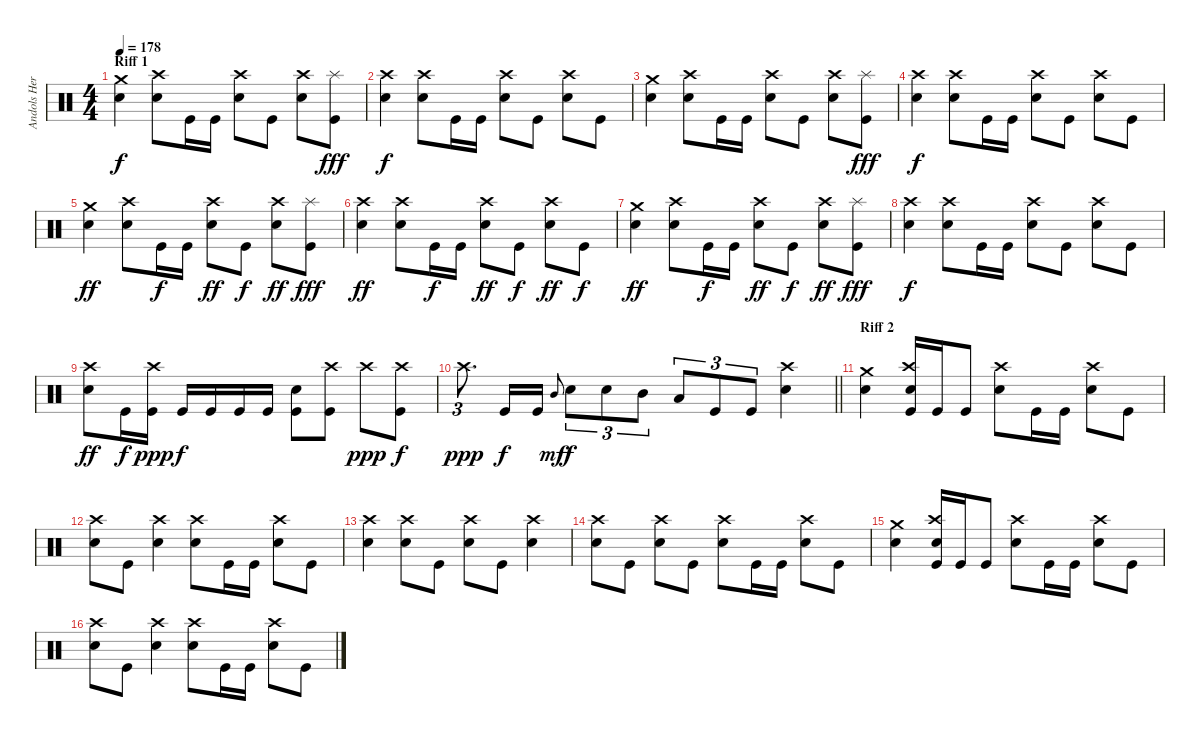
\track ("Andols Herrick" "Andols Her") {instrument percussion}
\staff {score}
\articulation defaults
\ts (4 4)
\section ("" "Riff 1")
\tempo 178
\clef neutral
\ks c
("Crash medium (hit)" "Electric Snare (hit)").4{dy f} ("Crash high (hit)" "Electric Snare (hit)").8 "Kick (hit)".16 "Kick (hit)".16 ("Crash high (hit)" "Electric Snare (hit)").8 "Kick (hit)".8 ("Crash high (hit)" "Electric Snare (hit)").8 ("Splash (hit)" "Kick (hit)").8{dy fff} |
("Crash high (hit)" "Electric Snare (hit)").4{dy f} ("Crash high (hit)" "Electric Snare (hit)").8 "Kick (hit)".16 "Kick (hit)".16 ("Crash high (hit)" "Electric Snare (hit)").8 "Kick (hit)".8 ("Crash high (hit)" "Electric Snare (hit)").8 "Kick (hit)".8 |
("Crash medium (hit)" "Electric Snare (hit)").4 ("Crash high (hit)" "Electric Snare (hit)").8 "Kick (hit)".16 "Kick (hit)".16 ("Crash high (hit)" "Electric Snare (hit)").8 "Kick (hit)".8 ("Crash high (hit)" "Electric Snare (hit)").8 ("Splash (hit)" "Kick (hit)").8{dy fff} |
("Crash high (hit)" "Electric Snare (hit)").4{dy f} ("Crash high (hit)" "Electric Snare (hit)").8 "Kick (hit)".16 "Kick (hit)".16 ("Crash high (hit)" "Electric Snare (hit)").8 "Kick (hit)".8 ("Crash high (hit)" "Electric Snare (hit)").8 "Kick (hit)".8 |
("Crash medium (hit)" "Electric Snare (hit)").4{dy ff} ("Crash high (hit)" "Electric Snare (hit)").8 "Kick (hit)".16{dy f} "Kick (hit)".16 ("Crash high (hit)" "Electric Snare (hit)").8{dy ff} "Kick (hit)".8{dy f} ("Crash high (hit)" "Electric Snare (hit)").8{dy ff} ("Splash (hit)" "Kick (hit)").8{dy fff} |
("Crash high (hit)" "Electric Snare (hit)").4{dy ff} ("Crash high (hit)" "Electric Snare (hit)").8 "Kick (hit)".16{dy f} "Kick (hit)".16 ("Crash high (hit)" "Electric Snare (hit)").8{dy ff} "Kick (hit)".8{dy f} ("Crash high (hit)" "Electric Snare (hit)").8{dy ff} "Kick (hit)".8{dy f} |
("Crash medium (hit)" "Electric Snare (hit)").4{dy ff} ("Crash high (hit)" "Electric Snare (hit)").8 "Kick (hit)".16{dy f} "Kick (hit)".16 ("Crash high (hit)" "Electric Snare (hit)").8{dy ff} "Kick (hit)".8{dy f} ("Crash high (hit)" "Electric Snare (hit)").8{dy ff} ("Splash (hit)" "Kick (hit)").8{dy fff} |
("Crash high (hit)" "Electric Snare (hit)").4{dy f} ("Crash high (hit)" "Electric Snare (hit)").8 "Kick (hit)".16 "Kick (hit)".16 ("Crash high (hit)" "Electric Snare (hit)").8 "Kick (hit)".8 ("Crash high (hit)" "Electric Snare (hit)").8 "Kick (hit)".8 |
("Crash high (hit)" "Electric Snare (hit)").8{dy ff} "Kick (hit)".16{dy f} ("Crash high (hit)" "Kick (hit)").16{dy ppp} "Kick (hit)".16{dy f} "Kick (hit)".16 "Kick (hit)".16 "Kick (hit)".16 ("Electric Snare (hit)" "Kick (hit)").8 ("Crash high (hit)" "Kick (hit)").8 "Crash high (hit)".8{dy ppp} ("Crash high (hit)" "Kick (hit)").8{dy f} |
\barLineRight lightlight "Crash high (hit)".8{d tu (3 2) dy ppp} "Kick (hit)".16{dy f} "Kick (hit)".16 "Mid Tom (hit)".8{gr onbeat dy mf} "Electric Snare (hit)".8{tu (3 2) dy f} "Electric Snare (hit)".8{tu (3 2)} "Mid Tom (hit)".8{tu (3 2)} "Low Tom (hit)".8{tu (3 2)} "Kick (hit)".8{tu (3 2)} "Kick (hit)".8{tu (3 2)}
("Crash high (hit)" "Electric Snare (hit)").4 |
\section ("" "Riff 2")
("Crash medium (hit)" "Electric Snare (hit)").4 ("Crash high (hit)" "Electric Snare (hit)" "Kick (hit)").16 "Kick (hit)".16 "Kick (hit)".8 ("Crash high (hit)" "Electric Snare (hit)").8 "Kick (hit)".16 "Kick (hit)".16 ("Crash high (hit)" "Electric Snare (hit)").8 "Kick (hit)".8 |
("Crash high (hit)" "Electric Snare (hit)").8 "Kick (hit)".8 ("Crash high (hit)" "Electric Snare (hit)").4 ("Crash high (hit)" "Electric Snare (hit)").8 "Kick (hit)".16 "Kick (hit)".16 ("Crash high (hit)" "Electric Snare (hit)").8 "Kick (hit)".8 |
("Crash high (hit)" "Electric Snare (hit)").4 ("Crash high (hit)" "Electric Snare (hit)").8 "Kick (hit)".8 ("Crash high (hit)" "Electric Snare (hit)").8 "Kick (hit)".8 ("Crash high (hit)" "Electric Snare (hit)").4 |
("Crash high (hit)" "Electric Snare (hit)").8 "Kick (hit)".8 ("Crash high (hit)" "Electric Snare (hit)").8 "Kick (hit)".8 ("Crash high (hit)" "Electric Snare (hit)").8 "Kick (hit)".16 "Kick (hit)".16 ("Crash high (hit)" "Electric Snare (hit)").8 "Kick (hit)".8 |
("Crash medium (hit)" "Electric Snare (hit)").4 ("Crash high (hit)" "Electric Snare (hit)" "Kick (hit)").16 "Kick (hit)".16 "Kick (hit)".8 ("Crash high (hit)" "Electric Snare (hit)").8 "Kick (hit)".16 "Kick (hit)".16 ("Crash high (hit)" "Electric Snare (hit)").8 "Kick (hit)".8 |
("Crash high (hit)" "Electric Snare (hit)").8 "Kick (hit)".8 ("Crash high (hit)" "Electric Snare (hit)").4 ("Crash high (hit)" "Electric Snare (hit)").8 "Kick (hit)".16 "Kick (hit)".16 ("Crash high (hit)" "Electric Snare (hit)").8 "Kick (hit)".8
